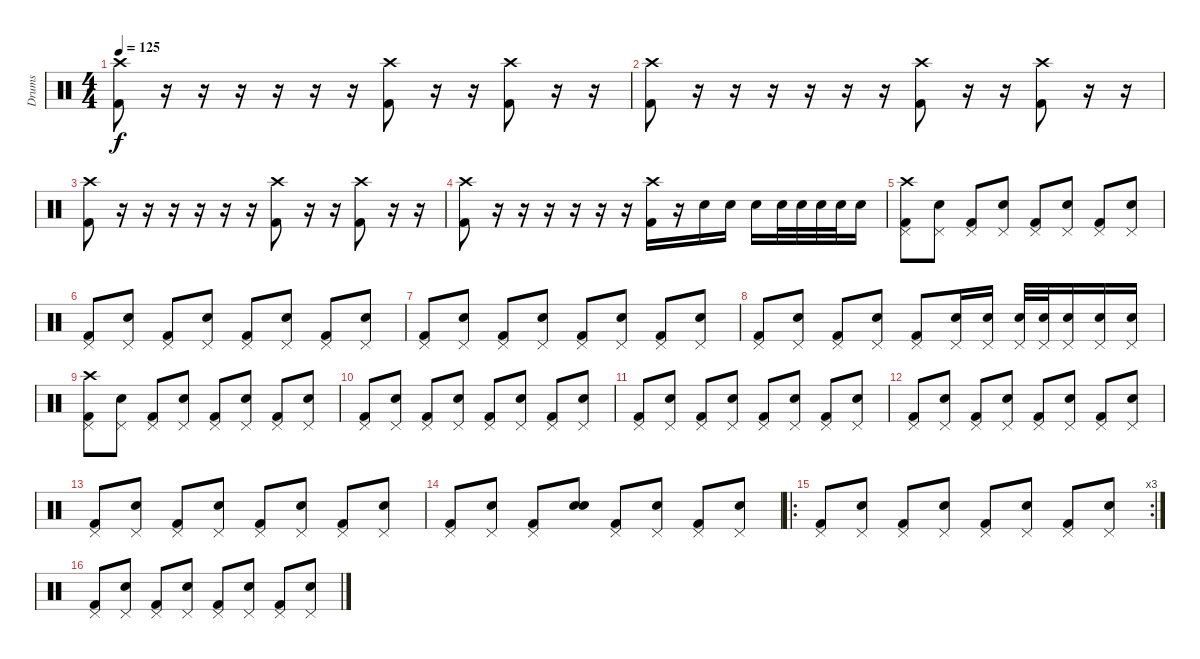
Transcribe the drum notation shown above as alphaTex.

\track ("Drums" "Drums") {instrument percussion}
\staff {score}
\articulation defaults
\ts (4 4)
\tempo 125
\clef neutral
\ks c
("Crash high (hit)" "Kick (hit) 2").8{dy f} r.16 r.16 r.16 r.16 r.16 r.16 ("Crash high (hit)" "Kick (hit) 2").8 r.16 r.16 ("Crash high (hit)" "Kick (hit) 2").8 r.16 r.16 |
("Crash high (hit)" "Kick (hit) 2").8 r.16 r.16 r.16 r.16 r.16 r.16 ("Crash high (hit)" "Kick (hit) 2").8 r.16 r.16 ("Crash high (hit)" "Kick (hit) 2").8 r.16 r.16 |
("Crash high (hit)" "Kick (hit) 2").8 r.16 r.16 r.16 r.16 r.16 r.16 ("Crash high (hit)" "Kick (hit) 2").8 r.16 r.16 ("Crash high (hit)" "Kick (hit) 2").8 r.16 r.16 |
("Crash high (hit)" "Kick (hit) 2").8 r.16 r.16 r.16 r.16 r.16 r.16 ("Crash high (hit)" "Kick (hit) 2").16 r.16 "Electric Snare (hit)".16 "Electric Snare (hit)".16 "Electric Snare (hit)".16 "Electric Snare (hit)".32 "Electric Snare (hit)".32 "Electric Snare (hit)".32 "Electric Snare (hit)".32 "Electric Snare (hit)".16 |
("Kick (hit) 2" "Crash high (hit)" "Pedal Hi-Hat (hit)").8 ("Electric Snare (hit)" "Pedal Hi-Hat (hit)").8 ("Kick (hit) 2" "Pedal Hi-Hat (hit)").8 ("Electric Snare (hit)" "Pedal Hi-Hat (hit)").8 ("Kick (hit) 2" "Pedal Hi-Hat (hit)").8 ("Electric Snare (hit)" "Pedal Hi-Hat (hit)").8 ("Kick (hit) 2" "Pedal Hi-Hat (hit)").8 ("Electric Snare (hit)" "Pedal Hi-Hat (hit)").8 |
("Kick (hit) 2" "Pedal Hi-Hat (hit)").8 ("Electric Snare (hit)" "Pedal Hi-Hat (hit)").8 ("Kick (hit) 2" "Pedal Hi-Hat (hit)").8 ("Electric Snare (hit)" "Pedal Hi-Hat (hit)").8 ("Kick (hit) 2" "Pedal Hi-Hat (hit)").8 ("Electric Snare (hit)" "Pedal Hi-Hat (hit)").8 ("Kick (hit) 2" "Pedal Hi-Hat (hit)").8 ("Electric Snare (hit)" "Pedal Hi-Hat (hit)").8 |
("Kick (hit) 2" "Pedal Hi-Hat (hit)").8 ("Electric Snare (hit)" "Pedal Hi-Hat (hit)").8 ("Kick (hit) 2" "Pedal Hi-Hat (hit)").8 ("Electric Snare (hit)" "Pedal Hi-Hat (hit)").8 ("Kick (hit) 2" "Pedal Hi-Hat (hit)").8 ("Electric Snare (hit)" "Pedal Hi-Hat (hit)").8 ("Kick (hit) 2" "Pedal Hi-Hat (hit)").8 ("Electric Snare (hit)" "Pedal Hi-Hat (hit)").8 |
("Kick (hit) 2" "Pedal Hi-Hat (hit)").8 ("Electric Snare (hit)" "Pedal Hi-Hat (hit)").8 ("Kick (hit) 2" "Pedal Hi-Hat (hit)").8 ("Electric Snare (hit)" "Pedal Hi-Hat (hit)").8 ("Kick (hit) 2" "Pedal Hi-Hat (hit)").8 ("Electric Snare (hit)" "Pedal Hi-Hat (hit)").16 ("Electric Snare (hit)" "Pedal Hi-Hat (hit)").16 ("Electric Snare (hit)" "Pedal Hi-Hat (hit)").32 ("Electric Snare (hit)" "Pedal Hi-Hat (hit)").32 ("Electric Snare (hit)" "Pedal Hi-Hat (hit)").16 ("Electric Snare (hit)" "Pedal Hi-Hat (hit)").16 ("Electric Snare (hit)" "Pedal Hi-Hat (hit)").16 |
("Kick (hit) 2" "Crash high (hit)" "Pedal Hi-Hat (hit)").8 ("Electric Snare (hit)" "Pedal Hi-Hat (hit)").8 ("Kick (hit) 2" "Pedal Hi-Hat (hit)").8 ("Electric Snare (hit)" "Pedal Hi-Hat (hit)").8 ("Kick (hit) 2" "Pedal Hi-Hat (hit)").8 ("Electric Snare (hit)" "Pedal Hi-Hat (hit)").8 ("Kick (hit) 2" "Pedal Hi-Hat (hit)").8 ("Electric Snare (hit)" "Pedal Hi-Hat (hit)").8 |
("Kick (hit) 2" "Pedal Hi-Hat (hit)").8 ("Electric Snare (hit)" "Pedal Hi-Hat (hit)").8 ("Kick (hit) 2" "Pedal Hi-Hat (hit)").8 ("Electric Snare (hit)" "Pedal Hi-Hat (hit)").8 ("Kick (hit) 2" "Pedal Hi-Hat (hit)").8 ("Electric Snare (hit)" "Pedal Hi-Hat (hit)").8 ("Kick (hit) 2" "Pedal Hi-Hat (hit)").8 ("Electric Snare (hit)" "Pedal Hi-Hat (hit)").8 |
("Kick (hit) 2" "Pedal Hi-Hat (hit)").8 ("Electric Snare (hit)" "Pedal Hi-Hat (hit)").8 ("Kick (hit) 2" "Pedal Hi-Hat (hit)").8 ("Electric Snare (hit)" "Pedal Hi-Hat (hit)").8 ("Kick (hit) 2" "Pedal Hi-Hat (hit)").8 ("Electric Snare (hit)" "Pedal Hi-Hat (hit)").8 ("Kick (hit) 2" "Pedal Hi-Hat (hit)").8 ("Electric Snare (hit)" "Pedal Hi-Hat (hit)").8 |
("Kick (hit) 2" "Pedal Hi-Hat (hit)").8 ("Electric Snare (hit)" "Pedal Hi-Hat (hit)").8 ("Kick (hit) 2" "Pedal Hi-Hat (hit)").8 ("Electric Snare (hit)" "Pedal Hi-Hat (hit)").8 ("Kick (hit) 2" "Pedal Hi-Hat (hit)").8 ("Electric Snare (hit)" "Pedal Hi-Hat (hit)").8 ("Kick (hit) 2" "Pedal Hi-Hat (hit)").8 ("Electric Snare (hit)" "Pedal Hi-Hat (hit)").8 |
("Kick (hit) 2" "Pedal Hi-Hat (hit)").8 ("Electric Snare (hit)" "Pedal Hi-Hat (hit)").8 ("Kick (hit) 2" "Pedal Hi-Hat (hit)").8 ("Electric Snare (hit)" "Pedal Hi-Hat (hit)").8 ("Kick (hit) 2" "Pedal Hi-Hat (hit)").8 ("Electric Snare (hit)" "Pedal Hi-Hat (hit)").8 ("Kick (hit) 2" "Pedal Hi-Hat (hit)").8 ("Electric Snare (hit)" "Pedal Hi-Hat (hit)").8 |
("Kick (hit) 2" "Pedal Hi-Hat (hit)").8 ("Electric Snare (hit)" "Pedal Hi-Hat (hit)").8 ("Kick (hit) 2" "Pedal Hi-Hat (hit)").8 ("Electric Snare (hit)" "Snare (hit)").8 ("Kick (hit) 2" "Pedal Hi-Hat (hit)").8 ("Electric Snare (hit)" "Pedal Hi-Hat (hit)").8 ("Kick (hit) 2" "Pedal Hi-Hat (hit)").8 ("Electric Snare (hit)" "Pedal Hi-Hat (hit)").8 |
\ro
\rc 3
("Kick (hit) 2" "Pedal Hi-Hat (hit)").8 ("Electric Snare (hit)" "Pedal Hi-Hat (hit)").8 ("Kick (hit) 2" "Pedal Hi-Hat (hit)").8 ("Electric Snare (hit)" "Pedal Hi-Hat (hit)").8 ("Kick (hit) 2" "Pedal Hi-Hat (hit)").8 ("Electric Snare (hit)" "Pedal Hi-Hat (hit)").8 ("Kick (hit) 2" "Pedal Hi-Hat (hit)").8 ("Electric Snare (hit)" "Pedal Hi-Hat (hit)").8 |
("Kick (hit) 2" "Pedal Hi-Hat (hit)").8 ("Electric Snare (hit)" "Pedal Hi-Hat (hit)").8 ("Kick (hit) 2" "Pedal Hi-Hat (hit)").8 ("Electric Snare (hit)" "Pedal Hi-Hat (hit)").8 ("Kick (hit) 2" "Pedal Hi-Hat (hit)").8 ("Electric Snare (hit)" "Pedal Hi-Hat (hit)").8 ("Kick (hit) 2" "Pedal Hi-Hat (hit)").8 ("Electric Snare (hit)" "Pedal Hi-Hat (hit)").8
